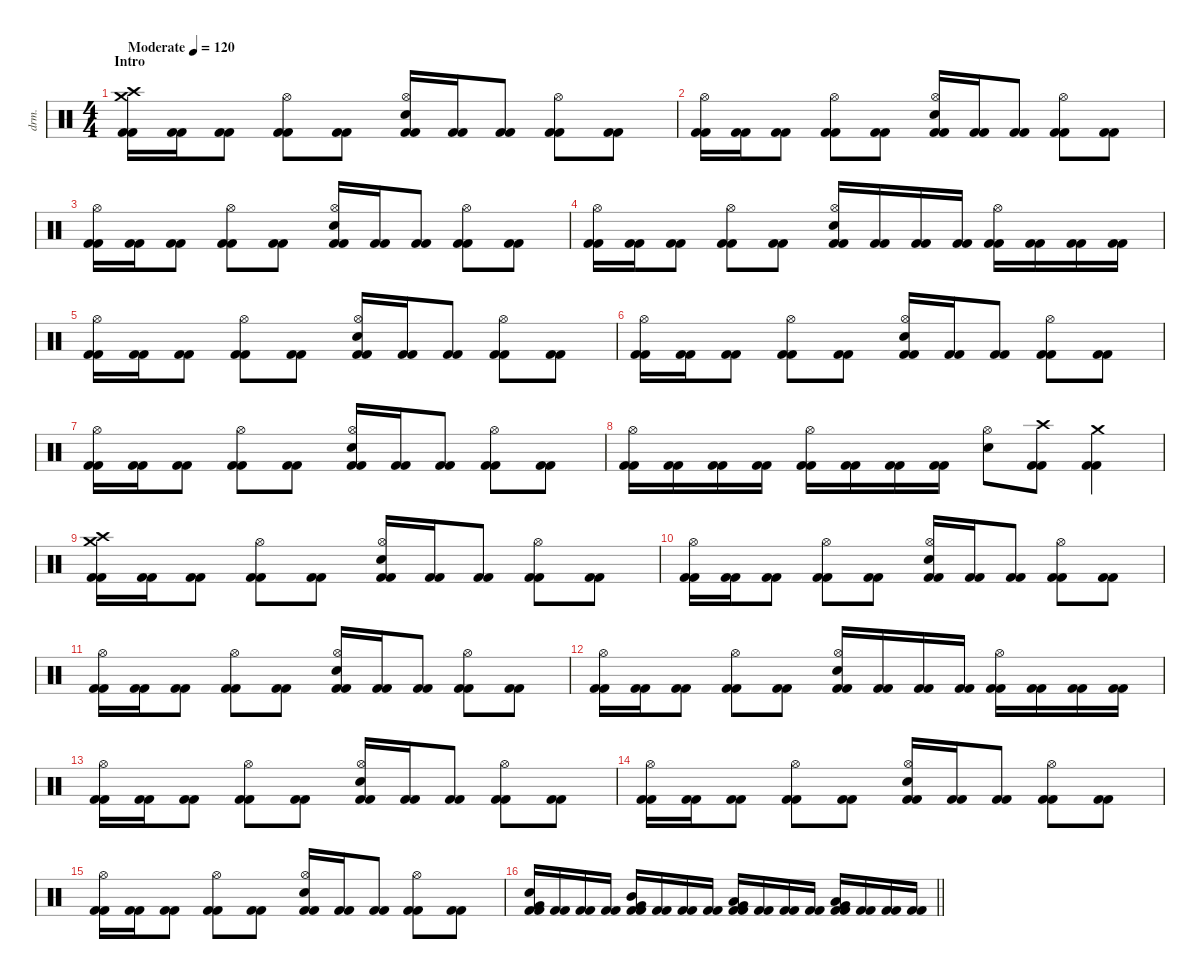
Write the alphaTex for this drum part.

\defaultSystemsLayout 4
\hideDynamics
\bracketExtendMode nobrackets
\otherSystemsTrackNameOrientation horizontal
\track ("Chris Adler" "drm.") {instrument percussion}
\staff {score}
\articulation defaults
\ts (4 4)
\beaming (8 2 2 2 2)
\section ("" "Intro")
\tempo (120 "Moderate")
\clef neutral
\ks c
("Crash medium (hit)" "Crash high (hit)" "Kick (hit) 2" "Kick (hit) 2").16{dy f} ("Kick (hit) 2" "Kick (hit) 2").16 ("Kick (hit) 2" "Kick (hit) 2").8 ("Hi-Hat (open)" "Kick (hit) 2" "Kick (hit) 2").8 ("Kick (hit) 2" "Kick (hit) 2").8 ("Hi-Hat (open)" "Snare (hit) 2" "Kick (hit) 2" "Kick (hit) 2").16 ("Kick (hit) 2" "Kick (hit) 2").16 ("Kick (hit) 2" "Kick (hit) 2").8 ("Hi-Hat (open)" "Kick (hit) 2" "Kick (hit) 2").8 ("Kick (hit) 2" "Kick (hit) 2").8 |
("Hi-Hat (open)" "Kick (hit) 2" "Kick (hit) 2").16 ("Kick (hit) 2" "Kick (hit) 2").16 ("Kick (hit) 2" "Kick (hit) 2").8 ("Hi-Hat (open)" "Kick (hit) 2" "Kick (hit) 2").8 ("Kick (hit) 2" "Kick (hit) 2").8 ("Hi-Hat (open)" "Snare (hit) 2" "Kick (hit) 2" "Kick (hit) 2").16 ("Kick (hit) 2" "Kick (hit) 2").16 ("Kick (hit) 2" "Kick (hit) 2").8 ("Hi-Hat (open)" "Kick (hit) 2" "Kick (hit) 2").8 ("Kick (hit) 2" "Kick (hit) 2").8 |
("Hi-Hat (open)" "Kick (hit) 2" "Kick (hit) 2").16 ("Kick (hit) 2" "Kick (hit) 2").16 ("Kick (hit) 2" "Kick (hit) 2").8 ("Hi-Hat (open)" "Kick (hit) 2" "Kick (hit) 2").8 ("Kick (hit) 2" "Kick (hit) 2").8 ("Hi-Hat (open)" "Snare (hit) 2" "Kick (hit) 2" "Kick (hit) 2").16 ("Kick (hit) 2" "Kick (hit) 2").16 ("Kick (hit) 2" "Kick (hit) 2").8 ("Hi-Hat (open)" "Kick (hit) 2" "Kick (hit) 2").8 ("Kick (hit) 2" "Kick (hit) 2").8 |
("Hi-Hat (open)" "Kick (hit) 2" "Kick (hit) 2").16 ("Kick (hit) 2" "Kick (hit) 2").16 ("Kick (hit) 2" "Kick (hit) 2").8 ("Hi-Hat (open)" "Kick (hit) 2" "Kick (hit) 2").8 ("Kick (hit) 2" "Kick (hit) 2").8 ("Hi-Hat (open)" "Snare (hit) 2" "Kick (hit) 2" "Kick (hit) 2").16 ("Kick (hit) 2" "Kick (hit) 2").16 ("Kick (hit) 2" "Kick (hit) 2").16 ("Kick (hit) 2" "Kick (hit) 2").16 ("Hi-Hat (open)" "Kick (hit) 2" "Kick (hit) 2").16 ("Kick (hit) 2" "Kick (hit) 2").16 ("Kick (hit) 2" "Kick (hit) 2").16 ("Kick (hit) 2" "Kick (hit) 2").16 |
("Hi-Hat (open)" "Kick (hit) 2" "Kick (hit) 2").16 ("Kick (hit) 2" "Kick (hit) 2").16 ("Kick (hit) 2" "Kick (hit) 2").8 ("Hi-Hat (open)" "Kick (hit) 2" "Kick (hit) 2").8 ("Kick (hit) 2" "Kick (hit) 2").8 ("Hi-Hat (open)" "Snare (hit) 2" "Kick (hit) 2" "Kick (hit) 2").16 ("Kick (hit) 2" "Kick (hit) 2").16 ("Kick (hit) 2" "Kick (hit) 2").8 ("Hi-Hat (open)" "Kick (hit) 2" "Kick (hit) 2").8 ("Kick (hit) 2" "Kick (hit) 2").8 |
("Hi-Hat (open)" "Kick (hit) 2" "Kick (hit) 2").16 ("Kick (hit) 2" "Kick (hit) 2").16 ("Kick (hit) 2" "Kick (hit) 2").8 ("Hi-Hat (open)" "Kick (hit) 2" "Kick (hit) 2").8 ("Kick (hit) 2" "Kick (hit) 2").8 ("Hi-Hat (open)" "Snare (hit) 2" "Kick (hit) 2" "Kick (hit) 2").16 ("Kick (hit) 2" "Kick (hit) 2").16 ("Kick (hit) 2" "Kick (hit) 2").8 ("Hi-Hat (open)" "Kick (hit) 2" "Kick (hit) 2").8 ("Kick (hit) 2" "Kick (hit) 2").8 |
("Hi-Hat (open)" "Kick (hit) 2" "Kick (hit) 2").16 ("Kick (hit) 2" "Kick (hit) 2").16 ("Kick (hit) 2" "Kick (hit) 2").8 ("Hi-Hat (open)" "Kick (hit) 2" "Kick (hit) 2").8 ("Kick (hit) 2" "Kick (hit) 2").8 ("Hi-Hat (open)" "Snare (hit) 2" "Kick (hit) 2" "Kick (hit) 2").16 ("Kick (hit) 2" "Kick (hit) 2").16 ("Kick (hit) 2" "Kick (hit) 2").8 ("Hi-Hat (open)" "Kick (hit) 2" "Kick (hit) 2").8 ("Kick (hit) 2" "Kick (hit) 2").8 |
("Hi-Hat (open)" "Kick (hit) 2" "Kick (hit) 2").16 ("Kick (hit) 2" "Kick (hit) 2").16 ("Kick (hit) 2" "Kick (hit) 2").16 ("Kick (hit) 2" "Kick (hit) 2").16 ("Hi-Hat (open)" "Kick (hit) 2" "Kick (hit) 2").16 ("Kick (hit) 2" "Kick (hit) 2").16 ("Kick (hit) 2" "Kick (hit) 2").16 ("Kick (hit) 2" "Kick (hit) 2").16 ("Hi-Hat (open)" "Snare (hit) 2").8 ("Crash high (hit)" "Kick (hit) 2" "Kick (hit) 2").8 ("Crash medium (hit)" "Kick (hit) 2" "Kick (hit) 2").4 |
("Crash medium (hit)" "Crash high (hit)" "Kick (hit) 2" "Kick (hit) 2").16 ("Kick (hit) 2" "Kick (hit) 2").16 ("Kick (hit) 2" "Kick (hit) 2").8 ("Hi-Hat (open)" "Kick (hit) 2" "Kick (hit) 2").8 ("Kick (hit) 2" "Kick (hit) 2").8 ("Hi-Hat (open)" "Snare (hit) 2" "Kick (hit) 2" "Kick (hit) 2").16 ("Kick (hit) 2" "Kick (hit) 2").16 ("Kick (hit) 2" "Kick (hit) 2").8 ("Hi-Hat (open)" "Kick (hit) 2" "Kick (hit) 2").8 ("Kick (hit) 2" "Kick (hit) 2").8 |
("Hi-Hat (open)" "Kick (hit) 2" "Kick (hit) 2").16 ("Kick (hit) 2" "Kick (hit) 2").16 ("Kick (hit) 2" "Kick (hit) 2").8 ("Hi-Hat (open)" "Kick (hit) 2" "Kick (hit) 2").8 ("Kick (hit) 2" "Kick (hit) 2").8 ("Hi-Hat (open)" "Snare (hit) 2" "Kick (hit) 2" "Kick (hit) 2").16 ("Kick (hit) 2" "Kick (hit) 2").16 ("Kick (hit) 2" "Kick (hit) 2").8 ("Hi-Hat (open)" "Kick (hit) 2" "Kick (hit) 2").8 ("Kick (hit) 2" "Kick (hit) 2").8 |
("Hi-Hat (open)" "Kick (hit) 2" "Kick (hit) 2").16 ("Kick (hit) 2" "Kick (hit) 2").16 ("Kick (hit) 2" "Kick (hit) 2").8 ("Hi-Hat (open)" "Kick (hit) 2" "Kick (hit) 2").8 ("Kick (hit) 2" "Kick (hit) 2").8 ("Hi-Hat (open)" "Snare (hit) 2" "Kick (hit) 2" "Kick (hit) 2").16 ("Kick (hit) 2" "Kick (hit) 2").16 ("Kick (hit) 2" "Kick (hit) 2").8 ("Hi-Hat (open)" "Kick (hit) 2" "Kick (hit) 2").8 ("Kick (hit) 2" "Kick (hit) 2").8 |
("Hi-Hat (open)" "Kick (hit) 2" "Kick (hit) 2").16 ("Kick (hit) 2" "Kick (hit) 2").16 ("Kick (hit) 2" "Kick (hit) 2").8 ("Hi-Hat (open)" "Kick (hit) 2" "Kick (hit) 2").8 ("Kick (hit) 2" "Kick (hit) 2").8 ("Hi-Hat (open)" "Snare (hit) 2" "Kick (hit) 2" "Kick (hit) 2").16 ("Kick (hit) 2" "Kick (hit) 2").16 ("Kick (hit) 2" "Kick (hit) 2").16 ("Kick (hit) 2" "Kick (hit) 2").16 ("Hi-Hat (open)" "Kick (hit) 2" "Kick (hit) 2").16 ("Kick (hit) 2" "Kick (hit) 2").16 ("Kick (hit) 2" "Kick (hit) 2").16 ("Kick (hit) 2" "Kick (hit) 2").16 |
("Hi-Hat (open)" "Kick (hit) 2" "Kick (hit) 2").16 ("Kick (hit) 2" "Kick (hit) 2").16 ("Kick (hit) 2" "Kick (hit) 2").8 ("Hi-Hat (open)" "Kick (hit) 2" "Kick (hit) 2").8 ("Kick (hit) 2" "Kick (hit) 2").8 ("Hi-Hat (open)" "Snare (hit) 2" "Kick (hit) 2" "Kick (hit) 2").16 ("Kick (hit) 2" "Kick (hit) 2").16 ("Kick (hit) 2" "Kick (hit) 2").8 ("Hi-Hat (open)" "Kick (hit) 2" "Kick (hit) 2").8 ("Kick (hit) 2" "Kick (hit) 2").8 |
("Hi-Hat (open)" "Kick (hit) 2" "Kick (hit) 2").16 ("Kick (hit) 2" "Kick (hit) 2").16 ("Kick (hit) 2" "Kick (hit) 2").8 ("Hi-Hat (open)" "Kick (hit) 2" "Kick (hit) 2").8 ("Kick (hit) 2" "Kick (hit) 2").8 ("Hi-Hat (open)" "Snare (hit) 2" "Kick (hit) 2" "Kick (hit) 2").16 ("Kick (hit) 2" "Kick (hit) 2").16 ("Kick (hit) 2" "Kick (hit) 2").8 ("Hi-Hat (open)" "Kick (hit) 2" "Kick (hit) 2").8 ("Kick (hit) 2" "Kick (hit) 2").8 |
("Hi-Hat (open)" "Kick (hit) 2" "Kick (hit) 2").16 ("Kick (hit) 2" "Kick (hit) 2").16 ("Kick (hit) 2" "Kick (hit) 2").8 ("Hi-Hat (open)" "Kick (hit) 2" "Kick (hit) 2").8 ("Kick (hit) 2" "Kick (hit) 2").8 ("Hi-Hat (open)" "Snare (hit) 2" "Kick (hit) 2" "Kick (hit) 2").16 ("Kick (hit) 2" "Kick (hit) 2").16 ("Kick (hit) 2" "Kick (hit) 2").8 ("Hi-Hat (open)" "Kick (hit) 2" "Kick (hit) 2").8 ("Kick (hit) 2" "Kick (hit) 2").8 |
\barLineRight lightlight
("Snare (hit) 2" "Very Low Tom (hit)" "Kick (hit) 2" "Kick (hit) 2").16 ("Kick (hit) 2" "Kick (hit) 2").16 ("Kick (hit) 2" "Kick (hit) 2").16 ("Kick (hit) 2" "Kick (hit) 2").16 ("Mid Tom (hit)" "Very Low Tom (hit)" "Kick (hit) 2" "Kick (hit) 2").16 ("Kick (hit) 2" "Kick (hit) 2").16 ("Kick (hit) 2" "Kick (hit) 2").16 ("Kick (hit) 2" "Kick (hit) 2").16 ("Low Tom (hit)" "Very Low Tom (hit)" "Kick (hit) 2" "Kick (hit) 2").16 ("Kick (hit) 2" "Kick (hit) 2").16 ("Kick (hit) 2" "Kick (hit) 2").16 ("Kick (hit) 2" "Kick (hit) 2").16 ("Very Low Tom (hit)" "Low Floor Tom (hit)" "Kick (hit) 2" "Kick (hit) 2").16 ("Kick (hit) 2" "Kick (hit) 2").16 ("Kick (hit) 2" "Kick (hit) 2").16 ("Kick (hit) 2" "Kick (hit) 2").16
